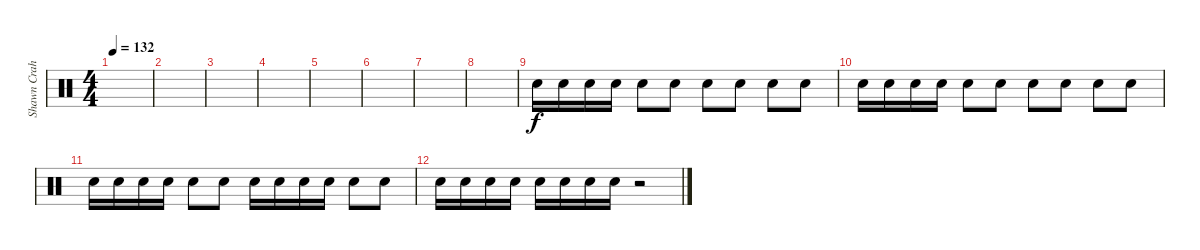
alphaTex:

\track ("Shawn Crahan" "Shawn Crah") {instrument percussion}
\staff {score}
\articulation defaults
\ts (4 4)
\tempo 132
\clef neutral
\ks c
|
|
|
|
|
|
|
|
"Snare (hit) 2".16{dy f} "Snare (hit) 2".16 "Snare (hit) 2".16 "Snare (hit) 2".16 "Snare (hit) 2".8 "Snare (hit) 2".8 "Snare (hit) 2".8 "Snare (hit) 2".8 "Snare (hit) 2".8 "Snare (hit) 2".8 |
"Snare (hit) 2".16 "Snare (hit) 2".16 "Snare (hit) 2".16 "Snare (hit) 2".16 "Snare (hit) 2".8 "Snare (hit) 2".8 "Snare (hit) 2".8 "Snare (hit) 2".8 "Snare (hit) 2".8 "Snare (hit) 2".8 |
"Snare (hit) 2".16 "Snare (hit) 2".16 "Snare (hit) 2".16 "Snare (hit) 2".16 "Snare (hit) 2".8 "Snare (hit) 2".8 "Snare (hit) 2".16 "Snare (hit) 2".16 "Snare (hit) 2".16 "Snare (hit) 2".16 "Snare (hit) 2".8 "Snare (hit) 2".8 |
"Snare (hit) 2".16 "Snare (hit) 2".16 "Snare (hit) 2".16 "Snare (hit) 2".16 "Snare (hit) 2".16 "Snare (hit) 2".16 "Snare (hit) 2".16 "Snare (hit) 2".16 r.2
